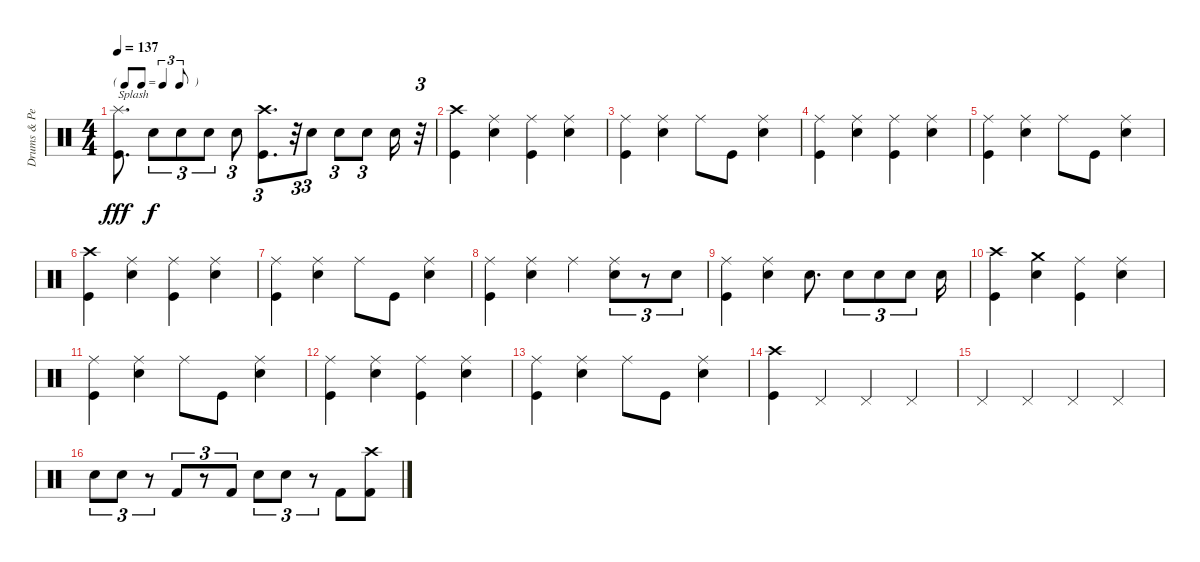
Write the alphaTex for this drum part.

\track ("Drums & Percussion (Matt)" "Drums & Pe") {instrument percussion}
\staff {score}
\articulation defaults
\ts (4 4)
\tf triplet8th
\tempo 137
\clef neutral
\ks c
("Splash (hit)" "Kick (hit)").8{d txt "Splash" dy fff} "Electric Snare (hit)".8{tu (3 2) dy f} "Electric Snare (hit)".8{tu (3 2)} "Electric Snare (hit)".8{tu (3 2)} "Electric Snare (hit)".8{tu (3 2)} ("Crash high (hit)" "Kick (hit)").8{d tu (3 2)} r.32{tu (3 2)} "Electric Snare (hit)".8{tu (3 2)} "Electric Snare (hit)".8{tu (3 2)} "Electric Snare (hit)".8{tu (3 2)} "Electric Snare (hit)".16 r.32{tu (3 2)} |
("Crash high (hit)" "Kick (hit)").4 ("Electric Snare (hit)" "Ride (middle)").4 ("Ride (middle)" "Kick (hit)").4 ("Electric Snare (hit)" "Ride (middle)").4 |
("Ride (middle)" "Kick (hit)").4 ("Ride (middle)" "Electric Snare (hit)").4 "Ride (middle)".8 "Kick (hit)".8 ("Ride (middle)" "Electric Snare (hit)").4 |
("Ride (middle)" "Kick (hit)").4 ("Electric Snare (hit)" "Ride (middle)").4 ("Ride (middle)" "Kick (hit)").4 ("Electric Snare (hit)" "Ride (middle)").4 |
("Ride (middle)" "Kick (hit)").4 ("Ride (middle)" "Electric Snare (hit)").4 "Ride (middle)".8 "Kick (hit)".8 ("Ride (middle)" "Electric Snare (hit)").4 |
("Crash high (hit)" "Kick (hit)").4 ("Electric Snare (hit)" "Ride (middle)").4 ("Ride (middle)" "Kick (hit)").4 ("Electric Snare (hit)" "Ride (middle)").4 |
("Ride (middle)" "Kick (hit)").4 ("Ride (middle)" "Electric Snare (hit)").4 "Ride (middle)".8 "Kick (hit)".8 ("Ride (middle)" "Electric Snare (hit)").4 |
("Ride (middle)" "Kick (hit)").4 ("Ride (middle)" "Electric Snare (hit)").4 "Ride (middle)".4 ("Ride (middle)" "Electric Snare (hit)").8{tu (3 2)} r.8{tu (3 2)} "Electric Snare (hit)".8{tu (3 2)} |
("Ride (middle)" "Kick (hit)").4 ("Ride (middle)" "Electric Snare (hit)").4 "Electric Snare (hit)".8{d} "Electric Snare (hit)".8{tu (3 2)} "Electric Snare (hit)".8{tu (3 2)} "Electric Snare (hit)".8{tu (3 2)} "Electric Snare (hit)".16 |
("Crash high (hit)" "Kick (hit)").4 ("Electric Snare (hit)" "Crash medium (hit)").4 ("Ride (middle)" "Kick (hit)").4 ("Electric Snare (hit)" "Ride (middle)").4 |
("Ride (middle)" "Kick (hit)").4 ("Ride (middle)" "Electric Snare (hit)").4 "Ride (middle)".8 "Kick (hit)".8 ("Ride (middle)" "Electric Snare (hit)").4 |
("Ride (middle)" "Kick (hit)").4 ("Electric Snare (hit)" "Ride (middle)").4 ("Ride (middle)" "Kick (hit)").4 ("Electric Snare (hit)" "Ride (middle)").4 |
("Ride (middle)" "Kick (hit)").4 ("Ride (middle)" "Electric Snare (hit)").4 "Ride (middle)".8 "Kick (hit)".8 ("Ride (middle)" "Electric Snare (hit)").4 |
("Crash high (hit)" "Kick (hit)").4 "Pedal Hi-Hat (hit)".4 "Pedal Hi-Hat (hit)".4 "Pedal Hi-Hat (hit)".4 |
"Pedal Hi-Hat (hit)".4 "Pedal Hi-Hat (hit)".4 "Pedal Hi-Hat (hit)".4 "Pedal Hi-Hat (hit)".4 |
"Electric Snare (hit)".8{tu (3 2)} "Electric Snare (hit)".8{tu (3 2)} r.8{tu (3 2)} "Kick (hit) 2".8{tu (3 2)} r.8{tu (3 2)} "Kick (hit) 2".8{tu (3 2)} "Electric Snare (hit)".8{tu (3 2)} "Electric Snare (hit)".8{tu (3 2)} r.8{tu (3 2)} "Kick (hit) 2".8 ("Crash high (hit)" "Kick (hit) 2").8
